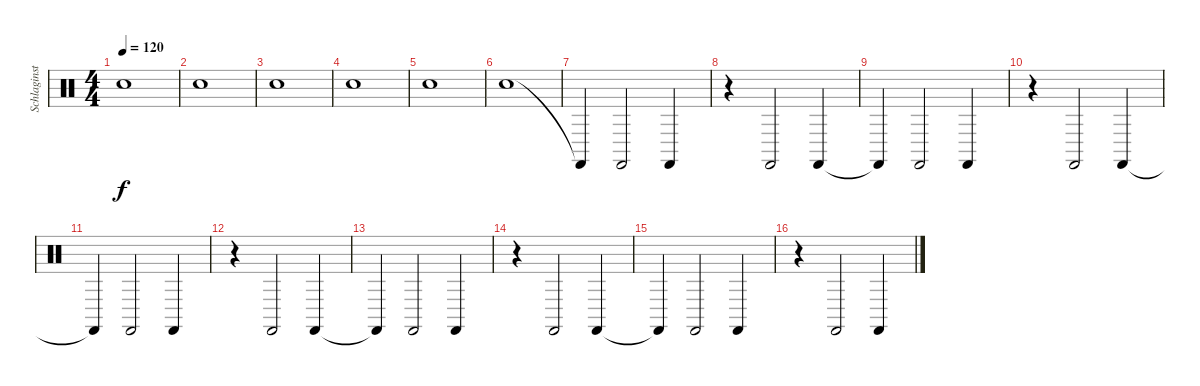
\track ("Schlaginstrumente - Auswahl" "Schlaginst") {instrument percussion}
\staff {score}
\articulation defaults
\ts (4 4)
\tempo 120
\clef neutral
\ks c "Hand Clap (hit)".1{dy f}
|
"Hand Clap (hit)".1 |
"Hand Clap (hit)".1 |
"Hand Clap (hit)".1 |
"Hand Clap (hit)".1 |
"Hand Clap (hit)".1 |
"Castanets (hit)"{t}.4 "Castanets (hit)".2 "Castanets (hit)".4 |
r.4 "Castanets (hit)".2 "Castanets (hit)".4 |
"Castanets (hit)"{t}.4 "Castanets (hit)".2 "Castanets (hit)".4 |
r.4 "Castanets (hit)".2 "Castanets (hit)".4 |
"Castanets (hit)"{t}.4 "Castanets (hit)".2 "Castanets (hit)".4 |
r.4 "Castanets (hit)".2 "Castanets (hit)".4 |
"Castanets (hit)"{t}.4 "Castanets (hit)".2 "Castanets (hit)".4 |
r.4 "Castanets (hit)".2 "Castanets (hit)".4 |
"Castanets (hit)"{t}.4 "Castanets (hit)".2 "Castanets (hit)".4 |
r.4 "Castanets (hit)".2 "Castanets (hit)".4
